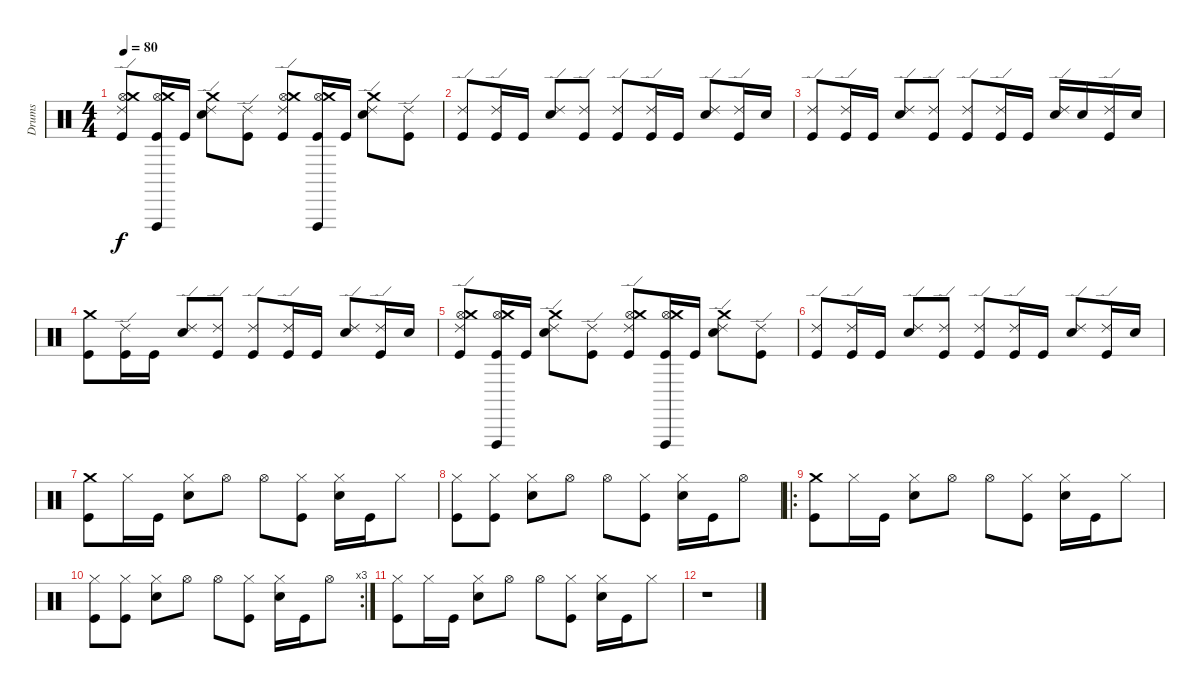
\track ("Drums" "Drums") {instrument percussion}
\staff {score}
\articulation defaults
\ts (4 4)
\tempo 80
\clef neutral
\ks c
("Kick (hit)" "Hi-Hat (open)" "Crash medium (hit)" "Ride (edge) 2").8{dy f} ("Kick (hit)" "Hi-Hat (open)" "Crash medium (hit)" "Vibraslap (hit)").16 "Kick (hit)".16 ("Electric Snare (hit)" "Crash medium (hit)" "Ride (edge) 2").8 ("Kick (hit)" "Ride (edge) 2").8 ("Kick (hit)" "Hi-Hat (open)" "Crash medium (hit)" "Ride (edge) 2").8 ("Kick (hit)" "Hi-Hat (open)" "Crash medium (hit)" "Vibraslap (hit)").16 "Kick (hit)".16 ("Electric Snare (hit)" "Crash medium (hit)" "Ride (edge) 2").8 ("Kick (hit)" "Ride (edge) 2").8 |
("Kick (hit)" "Ride (edge) 2").8 ("Kick (hit)" "Ride (edge) 2").16 "Kick (hit)".16 ("Electric Snare (hit)" "Ride (edge) 2").8 ("Kick (hit)" "Ride (edge) 2").8 ("Kick (hit)" "Ride (edge) 2").8 ("Kick (hit)" "Ride (edge) 2").16 "Kick (hit)".16 ("Electric Snare (hit)" "Ride (edge) 2").8 ("Kick (hit)" "Ride (edge) 2").16 "Electric Snare (hit)".16 |
("Kick (hit)" "Ride (edge) 2").8 ("Kick (hit)" "Ride (edge) 2").16 "Kick (hit)".16 ("Electric Snare (hit)" "Ride (edge) 2").8 ("Kick (hit)" "Ride (edge) 2").8 ("Kick (hit)" "Ride (edge) 2").8 ("Kick (hit)" "Ride (edge) 2").16 "Kick (hit)".16 ("Electric Snare (hit)" "Ride (edge) 2").16 "Electric Snare (hit)".16 ("Kick (hit)" "Ride (edge) 2").16 "Electric Snare (hit)".16 |
("Kick (hit)" "Crash medium (hit)").8 ("Kick (hit)" "Ride (edge) 2").16 "Kick (hit)".16 ("Electric Snare (hit)" "Ride (edge) 2").8 ("Kick (hit)" "Ride (edge) 2").8 ("Kick (hit)" "Ride (edge) 2").8 ("Kick (hit)" "Ride (edge) 2").16 "Kick (hit)".16 ("Electric Snare (hit)" "Ride (edge) 2").8 ("Kick (hit)" "Ride (edge) 2").16 "Electric Snare (hit)".16 |
("Kick (hit)" "Hi-Hat (open)" "Crash medium (hit)" "Ride (edge) 2").8 ("Kick (hit)" "Hi-Hat (open)" "Crash medium (hit)" "Vibraslap (hit)").16 "Kick (hit)".16 ("Electric Snare (hit)" "Crash medium (hit)" "Ride (edge) 2").8 ("Kick (hit)" "Ride (edge) 2").8 ("Kick (hit)" "Hi-Hat (open)" "Crash medium (hit)" "Ride (edge) 2").8 ("Kick (hit)" "Hi-Hat (open)" "Crash medium (hit)" "Vibraslap (hit)").16 "Kick (hit)".16 ("Electric Snare (hit)" "Crash medium (hit)" "Ride (edge) 2").8 ("Kick (hit)" "Ride (edge) 2").8 |
("Kick (hit)" "Ride (edge) 2").8 ("Kick (hit)" "Ride (edge) 2").16 "Kick (hit)".16 ("Electric Snare (hit)" "Ride (edge) 2").8 ("Kick (hit)" "Ride (edge) 2").8 ("Kick (hit)" "Ride (edge) 2").8 ("Kick (hit)" "Ride (edge) 2").16 "Kick (hit)".16 ("Electric Snare (hit)" "Ride (edge) 2").8 ("Kick (hit)" "Ride (edge) 2").16 "Electric Snare (hit)".16 |
("Kick (hit)" "Crash medium (hit)").8 "Hi-Hat (closed)".16 "Kick (hit)".16 ("Electric Snare (hit)" "Hi-Hat (closed)").8 "Hi-Hat (open)".8 "Hi-Hat (open)".8 ("Kick (hit)" "Hi-Hat (closed)").8 ("Electric Snare (hit)" "Hi-Hat (closed)").16 "Kick (hit)".16 "Hi-Hat (closed)".8 |
("Kick (hit)" "Hi-Hat (closed)").8 ("Kick (hit)" "Hi-Hat (closed)").8 ("Electric Snare (hit)" "Hi-Hat (closed)").8 "Hi-Hat (open)".8 "Hi-Hat (open)".8 ("Kick (hit)" "Hi-Hat (closed)").8 ("Electric Snare (hit)" "Hi-Hat (closed)").16 "Kick (hit)".16 "Hi-Hat (open)".8 |
\ro
("Kick (hit)" "Crash medium (hit)").8 "Hi-Hat (closed)".16 "Kick (hit)".16 ("Electric Snare (hit)" "Hi-Hat (closed)").8 "Hi-Hat (open)".8 "Hi-Hat (open)".8 ("Kick (hit)" "Hi-Hat (closed)").8 ("Electric Snare (hit)" "Hi-Hat (closed)").16 "Kick (hit)".16 "Hi-Hat (closed)".8 |
\rc 3
("Kick (hit)" "Hi-Hat (closed)").8 ("Kick (hit)" "Hi-Hat (closed)").8 ("Electric Snare (hit)" "Hi-Hat (closed)").8 "Hi-Hat (open)".8 "Hi-Hat (open)".8 ("Kick (hit)" "Hi-Hat (closed)").8 ("Electric Snare (hit)" "Hi-Hat (closed)").16 "Kick (hit)".16 "Hi-Hat (open)".8 |
("Kick (hit)" "Hi-Hat (closed)").8 "Hi-Hat (closed)".16 "Kick (hit)".16 ("Electric Snare (hit)" "Hi-Hat (closed)").8 "Hi-Hat (open)".8 "Hi-Hat (open)".8 ("Kick (hit)" "Hi-Hat (closed)").8 ("Electric Snare (hit)" "Hi-Hat (closed)").16 "Kick (hit)".16 "Hi-Hat (closed)".8 |
r.1
